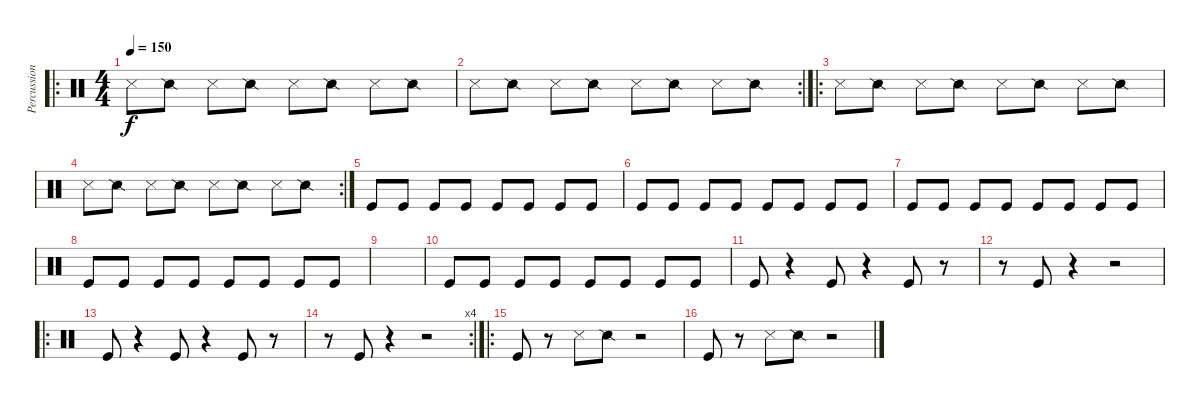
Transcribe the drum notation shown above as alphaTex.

\track ("Percussions" "Percussion") {instrument percussion}
\staff {score}
\articulation defaults
\ro
\ts (4 4)
\tempo 150
\clef neutral
\ks c "Snare (side stick) 3".8{dy f} "Snare (side stick) 2".8 "Snare (side stick) 3".8 "Snare (side stick) 2".8 "Snare (side stick) 3".8 "Snare (side stick) 2".8 "Snare (side stick) 3".8 "Snare (side stick) 2".8
|
\rc 2 "Snare (side stick) 3".8 "Snare (side stick) 2".8 "Snare (side stick) 3".8 "Snare (side stick) 2".8 "Snare (side stick) 3".8 "Snare (side stick) 2".8 "Snare (side stick) 3".8 "Snare (side stick) 2".8
|
\ro "Snare (side stick) 3".8 "Snare (side stick) 2".8 "Snare (side stick) 3".8 "Snare (side stick) 2".8 "Snare (side stick) 3".8 "Snare (side stick) 2".8 "Snare (side stick) 3".8 "Snare (side stick) 2".8
|
\rc 2 "Snare (side stick) 3".8 "Snare (side stick) 2".8 "Snare (side stick) 3".8 "Snare (side stick) 2".8 "Snare (side stick) 3".8 "Snare (side stick) 2".8 "Snare (side stick) 3".8 "Snare (side stick) 2".8
|
"Kick (hit)".8 "Kick (hit)".8 "Kick (hit)".8 "Kick (hit)".8 "Kick (hit)".8 "Kick (hit)".8 "Kick (hit)".8 "Kick (hit)".8 |
"Kick (hit)".8 "Kick (hit)".8 "Kick (hit)".8 "Kick (hit)".8 "Kick (hit)".8 "Kick (hit)".8 "Kick (hit)".8 "Kick (hit)".8 |
"Kick (hit)".8 "Kick (hit)".8 "Kick (hit)".8 "Kick (hit)".8 "Kick (hit)".8 "Kick (hit)".8 "Kick (hit)".8 "Kick (hit)".8 |
"Kick (hit)".8 "Kick (hit)".8 "Kick (hit)".8 "Kick (hit)".8 "Kick (hit)".8 "Kick (hit)".8 "Kick (hit)".8 "Kick (hit)".8 |
|
"Kick (hit)".8 "Kick (hit)".8 "Kick (hit)".8 "Kick (hit)".8 "Kick (hit)".8 "Kick (hit)".8 "Kick (hit)".8 "Kick (hit)".8 |
"Kick (hit)".8 r.4 "Kick (hit)".8 r.4 "Kick (hit)".8 r.8 |
r.8 "Kick (hit)".8 r.4 r.2 |
\ro "Kick (hit)".8
r.4 "Kick (hit)".8 r.4 "Kick (hit)".8 r.8 |
\rc 4
r.8 "Kick (hit)".8 r.4 r.2 |
\ro "Kick (hit)".8
r.8 "Snare (side stick) 3".8 "Snare (side stick) 2".8 r.2 |
"Kick (hit)".8 r.8 "Snare (side stick) 3".8 "Snare (side stick) 2".8 r.2
